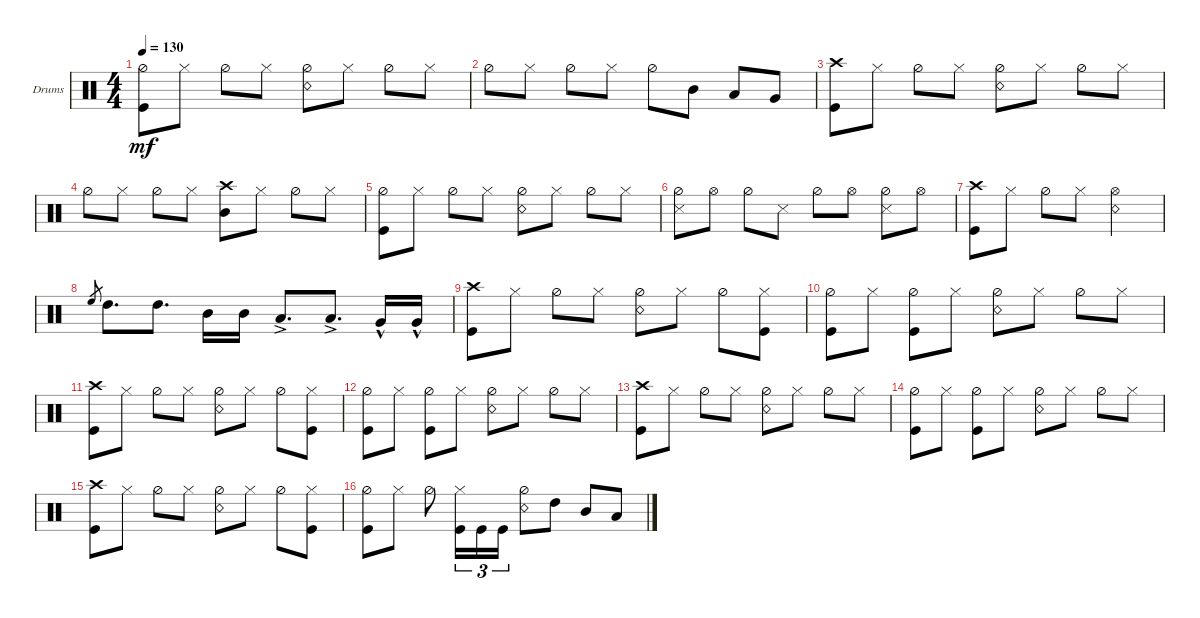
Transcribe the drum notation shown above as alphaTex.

\defaultSystemsLayout 4
\bracketExtendMode groupsimilarinstruments
\firstSystemTrackNameOrientation horizontal
\otherSystemsTrackNameOrientation horizontal
\track ("Drumkit" "Drums") {instrument percussion}
\staff {score}
\articulation defaults
\ts (4 4)
\tempo 130
\clef neutral
\ks c
("Kick (hit)" "Hi-Hat (half)").8{dy mf} "Hi-Hat (closed)".8 "Hi-Hat (half)".8 "Hi-Hat (closed)".8 ("Hi-Hat (half)" "Snare (rim shot)").8 "Hi-Hat (closed)".8 "Hi-Hat (half)".8 "Hi-Hat (closed)".8 |
"Hi-Hat (half)".8 "Hi-Hat (closed)".8 "Hi-Hat (half)".8 "Hi-Hat (closed)".8 "Hi-Hat (half)".8 "Mid Tom (hit)".8 "Low Tom (hit)".8 "Very Low Tom (hit)".8 |
("Kick (hit)" "Crash high (hit)").8 "Hi-Hat (closed)".8 "Hi-Hat (half)".8 "Hi-Hat (closed)".8 ("Hi-Hat (half)" "Snare (rim shot)").8 "Hi-Hat (closed)".8 "Hi-Hat (half)".8 "Hi-Hat (closed)".8 |
"Hi-Hat (half)".8 "Hi-Hat (closed)".8 "Hi-Hat (half)".8 "Hi-Hat (closed)".8 ("Mid Tom (hit)" "Crash high (hit)").8 "Hi-Hat (closed)".8 "Hi-Hat (half)".8 "Hi-Hat (closed)".8 |
("Kick (hit)" "Hi-Hat (half)").8 "Hi-Hat (closed)".8 "Hi-Hat (half)".8 "Hi-Hat (closed)".8 ("Hi-Hat (half)" "Snare (rim shot)").8 "Hi-Hat (closed)".8 "Hi-Hat (half)".8 "Hi-Hat (closed)".8 |
("Hi-Hat (half)" "Snare (side stick) 3").8 "Hi-Hat (open)".8 "Hi-Hat (half)".8 "Snare (side stick) 3".8 "Hi-Hat (half)".8 "Hi-Hat (open)".8 ("Hi-Hat (half)" "Snare (side stick) 3").8 "Hi-Hat (open)".8 |
("Kick (hit)" "Crash high (hit)").8 "Hi-Hat (closed)".8 "Hi-Hat (half)".8 "Hi-Hat (closed)".8 ("Hi-Hat (open)" "Snare (rim shot)").2 |
"High Floor Tom (hit)".8{gr} "High Tom (hit)".8{d} "High Tom (hit)".8{d} "Mid Tom (hit)".16 "Mid Tom (hit)".16 "Low Tom (hit)"{ac}.8{d} "Low Tom (hit)"{ac}.8{d} "Very Low Tom (hit)"{hac}.16 "Very Low Tom (hit)"{hac}.16 |
("Kick (hit)" "Crash high (hit)").8 "Hi-Hat (closed)".8 "Hi-Hat (half)".8 "Hi-Hat (closed)".8 ("Hi-Hat (half)" "Snare (rim shot)").8 "Hi-Hat (closed)".8 "Hi-Hat (half)".8 ("Hi-Hat (closed)" "Kick (hit)").8 |
("Kick (hit)" "Hi-Hat (half)").8 "Hi-Hat (closed)".8 ("Hi-Hat (half)" "Kick (hit)").8 "Hi-Hat (closed)".8 ("Hi-Hat (half)" "Snare (rim shot)").8 "Hi-Hat (closed)".8 "Hi-Hat (half)".8 "Hi-Hat (closed)".8 |
("Kick (hit)" "Crash high (hit)").8 "Hi-Hat (closed)".8 "Hi-Hat (half)".8 "Hi-Hat (closed)".8 ("Hi-Hat (half)" "Snare (rim shot)").8 "Hi-Hat (closed)".8 "Hi-Hat (half)".8 ("Hi-Hat (closed)" "Kick (hit)").8 |
("Kick (hit)" "Hi-Hat (half)").8 "Hi-Hat (closed)".8 ("Hi-Hat (half)" "Kick (hit)").8 "Hi-Hat (closed)".8 ("Hi-Hat (half)" "Snare (rim shot)").8 "Hi-Hat (closed)".8 "Hi-Hat (half)".8 "Hi-Hat (closed)".8 |
("Kick (hit)" "Crash high (hit)").8 "Hi-Hat (closed)".8 "Hi-Hat (half)".8 "Hi-Hat (closed)".8 ("Hi-Hat (half)" "Snare (rim shot)").8 "Hi-Hat (closed)".8 "Hi-Hat (half)".8 "Hi-Hat (closed)".8 |
("Kick (hit)" "Hi-Hat (half)").8 "Hi-Hat (closed)".8 ("Hi-Hat (half)" "Kick (hit)").8 "Hi-Hat (closed)".8 ("Hi-Hat (half)" "Snare (rim shot)").8 "Hi-Hat (closed)".8 "Hi-Hat (half)".8 "Hi-Hat (closed)".8 |
("Kick (hit)" "Crash high (hit)").8 "Hi-Hat (closed)".8 "Hi-Hat (half)".8 "Hi-Hat (closed)".8 ("Hi-Hat (half)" "Snare (rim shot)").8 "Hi-Hat (closed)".8 "Hi-Hat (half)".8 ("Hi-Hat (closed)" "Kick (hit)").8 |
("Kick (hit)" "Hi-Hat (half)").8 "Hi-Hat (closed)".8 "Hi-Hat (half)".8 ("Hi-Hat (closed)" "Kick (hit)").16{tu (3 2)} "Kick (hit)".16{tu (3 2)} "Kick (hit)".16{tu (3 2)} ("Hi-Hat (half)" "Snare (rim shot)").8 "High Tom (hit)".8 "Mid Tom (hit)".8 "Low Tom (hit)".8
